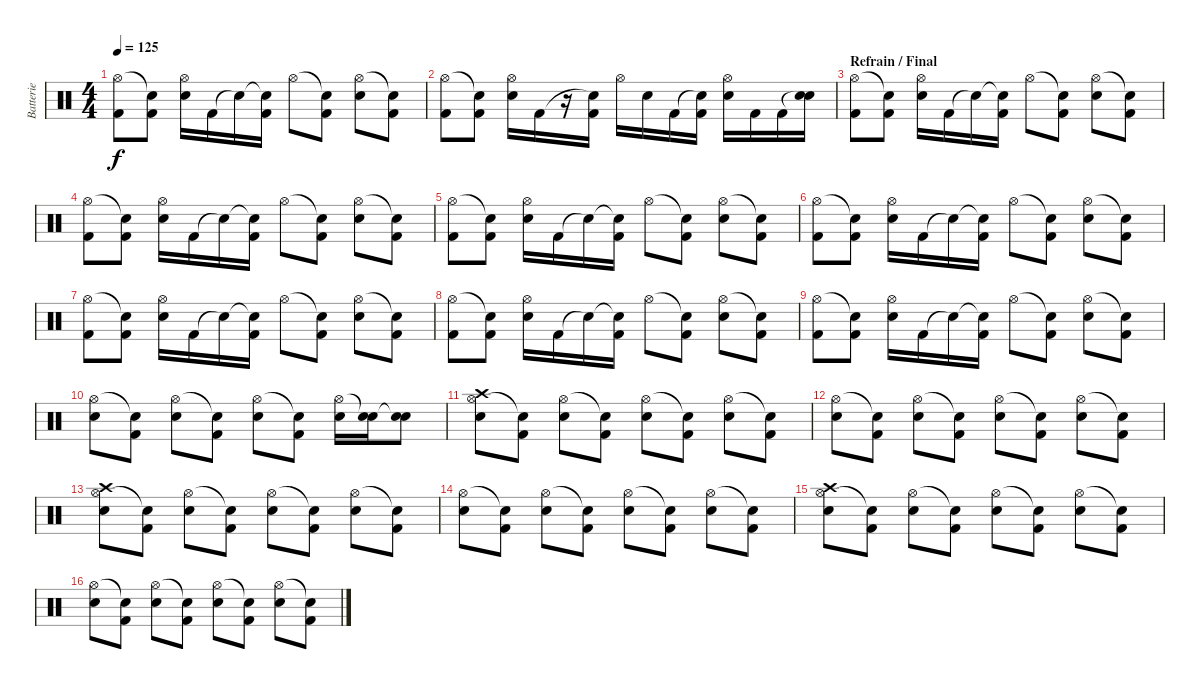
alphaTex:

\track ("Batterie" "Batterie") {instrument percussion}
\staff {score}
\articulation defaults
\ts (4 4)
\tempo 125
\clef neutral
\ks c
("Hi-Hat (open)" "Kick (hit) 2").8{dy f} ("Snare (hit)"{t} "Kick (hit) 2").8 ("Hi-Hat (open)" "Electric Snare (hit)").16 "Kick (hit) 2".16 "Snare (hit)"{t}.16 ("Snare (hit)"{t} "Kick (hit) 2").16 "Hi-Hat (open)".8 ("Snare (hit)"{t} "Kick (hit) 2").8 ("Hi-Hat (open)" "Electric Snare (hit)").8 ("Snare (hit)"{t} "Kick (hit) 2").8 |
("Hi-Hat (open)" "Kick (hit) 2").8 ("Snare (hit)"{t} "Kick (hit) 2").8 ("Hi-Hat (open)" "Electric Snare (hit)").16 "Kick (hit) 2".16 r.16 ("Snare (hit)"{t} "Kick (hit) 2").16 "Hi-Hat (open)".16 "Electric Snare (hit)".16 "Kick (hit) 2".16 ("Snare (hit)"{t} "Kick (hit) 2").16 ("Hi-Hat (open)" "Electric Snare (hit)").16 "Kick (hit) 2".16 "Kick (hit) 2".16 ("Snare (hit)"{t} "Electric Snare (hit)").16 |
\section ("" "Refrain / Final")
("Hi-Hat (open)" "Kick (hit) 2").8 ("Snare (hit)"{t} "Kick (hit) 2").8 ("Hi-Hat (open)" "Electric Snare (hit)").16 "Kick (hit) 2".16 "Snare (hit)"{t}.16 ("Snare (hit)"{t} "Kick (hit) 2").16 "Hi-Hat (open)".8 ("Snare (hit)"{t} "Kick (hit) 2").8 ("Hi-Hat (open)" "Electric Snare (hit)").8 ("Snare (hit)"{t} "Kick (hit) 2").8 |
("Hi-Hat (open)" "Kick (hit) 2").8 ("Snare (hit)"{t} "Kick (hit) 2").8 ("Hi-Hat (open)" "Electric Snare (hit)").16 "Kick (hit) 2".16 "Snare (hit)"{t}.16 ("Snare (hit)"{t} "Kick (hit) 2").16 "Hi-Hat (open)".8 ("Snare (hit)"{t} "Kick (hit) 2").8 ("Hi-Hat (open)" "Electric Snare (hit)").8 ("Snare (hit)"{t} "Kick (hit) 2").8 |
("Hi-Hat (open)" "Kick (hit) 2").8 ("Snare (hit)"{t} "Kick (hit) 2").8 ("Hi-Hat (open)" "Electric Snare (hit)").16 "Kick (hit) 2".16 "Snare (hit)"{t}.16 ("Snare (hit)"{t} "Kick (hit) 2").16 "Hi-Hat (open)".8 ("Snare (hit)"{t} "Kick (hit) 2").8 ("Hi-Hat (open)" "Electric Snare (hit)").8 ("Snare (hit)"{t} "Kick (hit) 2").8 |
("Hi-Hat (open)" "Kick (hit) 2").8 ("Snare (hit)"{t} "Kick (hit) 2").8 ("Hi-Hat (open)" "Electric Snare (hit)").16 "Kick (hit) 2".16 "Snare (hit)"{t}.16 ("Snare (hit)"{t} "Kick (hit) 2").16 "Hi-Hat (open)".8 ("Snare (hit)"{t} "Kick (hit) 2").8 ("Hi-Hat (open)" "Electric Snare (hit)").8 ("Snare (hit)"{t} "Kick (hit) 2").8 |
("Hi-Hat (open)" "Kick (hit) 2").8 ("Snare (hit)"{t} "Kick (hit) 2").8 ("Hi-Hat (open)" "Electric Snare (hit)").16 "Kick (hit) 2".16 "Snare (hit)"{t}.16 ("Snare (hit)"{t} "Kick (hit) 2").16 "Hi-Hat (open)".8 ("Snare (hit)"{t} "Kick (hit) 2").8 ("Hi-Hat (open)" "Electric Snare (hit)").8 ("Snare (hit)"{t} "Kick (hit) 2").8 |
("Hi-Hat (open)" "Kick (hit) 2").8 ("Snare (hit)"{t} "Kick (hit) 2").8 ("Hi-Hat (open)" "Electric Snare (hit)").16 "Kick (hit) 2".16 "Snare (hit)"{t}.16 ("Snare (hit)"{t} "Kick (hit) 2").16 "Hi-Hat (open)".8 ("Snare (hit)"{t} "Kick (hit) 2").8 ("Hi-Hat (open)" "Electric Snare (hit)").8 ("Snare (hit)"{t} "Kick (hit) 2").8 |
("Hi-Hat (open)" "Kick (hit) 2").8 ("Snare (hit)"{t} "Kick (hit) 2").8 ("Hi-Hat (open)" "Electric Snare (hit)").16 "Kick (hit) 2".16 "Snare (hit)"{t}.16 ("Snare (hit)"{t} "Kick (hit) 2").16 "Hi-Hat (open)".8 ("Snare (hit)"{t} "Kick (hit) 2").8 ("Hi-Hat (open)" "Electric Snare (hit)").8 ("Snare (hit)"{t} "Kick (hit) 2").8 |
("Hi-Hat (open)" "Electric Snare (hit)").8 ("Snare (hit)"{t} "Kick (hit) 2").8 ("Hi-Hat (open)" "Electric Snare (hit)").8 ("Snare (hit)"{t} "Kick (hit) 2").8 ("Hi-Hat (open)" "Electric Snare (hit)").8 ("Snare (hit)"{t} "Kick (hit) 2").8 ("Hi-Hat (open)" "Electric Snare (hit)").16 ("Snare (hit)"{t} "Electric Snare (hit)").16 ("Snare (hit)"{t} "Electric Snare (hit)").8 |
("Hi-Hat (open)" "Crash high (hit)" "Electric Snare (hit)").8 ("Snare (hit)"{t} "Kick (hit) 2").8 ("Hi-Hat (open)" "Electric Snare (hit)").8 ("Snare (hit)"{t} "Kick (hit) 2").8 ("Hi-Hat (open)" "Electric Snare (hit)").8 ("Snare (hit)"{t} "Kick (hit) 2").8 ("Hi-Hat (open)" "Electric Snare (hit)").8 ("Snare (hit)"{t} "Kick (hit) 2").8 |
("Hi-Hat (open)" "Electric Snare (hit)").8 ("Snare (hit)"{t} "Kick (hit) 2").8 ("Hi-Hat (open)" "Electric Snare (hit)").8 ("Snare (hit)"{t} "Kick (hit) 2").8 ("Hi-Hat (open)" "Electric Snare (hit)").8 ("Snare (hit)"{t} "Kick (hit) 2").8 ("Hi-Hat (open)" "Electric Snare (hit)").8 ("Snare (hit)"{t} "Kick (hit) 2").8 |
("Hi-Hat (open)" "Crash high (hit)" "Electric Snare (hit)").8 ("Snare (hit)"{t} "Kick (hit) 2").8 ("Hi-Hat (open)" "Electric Snare (hit)").8 ("Snare (hit)"{t} "Kick (hit) 2").8 ("Hi-Hat (open)" "Electric Snare (hit)").8 ("Snare (hit)"{t} "Kick (hit) 2").8 ("Hi-Hat (open)" "Electric Snare (hit)").8 ("Snare (hit)"{t} "Kick (hit) 2").8 |
("Hi-Hat (open)" "Electric Snare (hit)").8 ("Snare (hit)"{t} "Kick (hit) 2").8 ("Hi-Hat (open)" "Electric Snare (hit)").8 ("Snare (hit)"{t} "Kick (hit) 2").8 ("Hi-Hat (open)" "Electric Snare (hit)").8 ("Snare (hit)"{t} "Kick (hit) 2").8 ("Hi-Hat (open)" "Electric Snare (hit)").8 ("Snare (hit)"{t} "Kick (hit) 2").8 |
("Hi-Hat (open)" "Crash high (hit)" "Electric Snare (hit)").8 ("Snare (hit)"{t} "Kick (hit) 2").8 ("Hi-Hat (open)" "Electric Snare (hit)").8 ("Snare (hit)"{t} "Kick (hit) 2").8 ("Hi-Hat (open)" "Electric Snare (hit)").8 ("Snare (hit)"{t} "Kick (hit) 2").8 ("Hi-Hat (open)" "Electric Snare (hit)").8 ("Snare (hit)"{t} "Kick (hit) 2").8 |
("Hi-Hat (open)" "Electric Snare (hit)").8 ("Snare (hit)"{t} "Kick (hit) 2").8 ("Hi-Hat (open)" "Electric Snare (hit)").8 ("Snare (hit)"{t} "Kick (hit) 2").8 ("Hi-Hat (open)" "Electric Snare (hit)").8 ("Snare (hit)"{t} "Kick (hit) 2").8 ("Hi-Hat (open)" "Electric Snare (hit)").8 ("Snare (hit)"{t} "Kick (hit) 2").8
